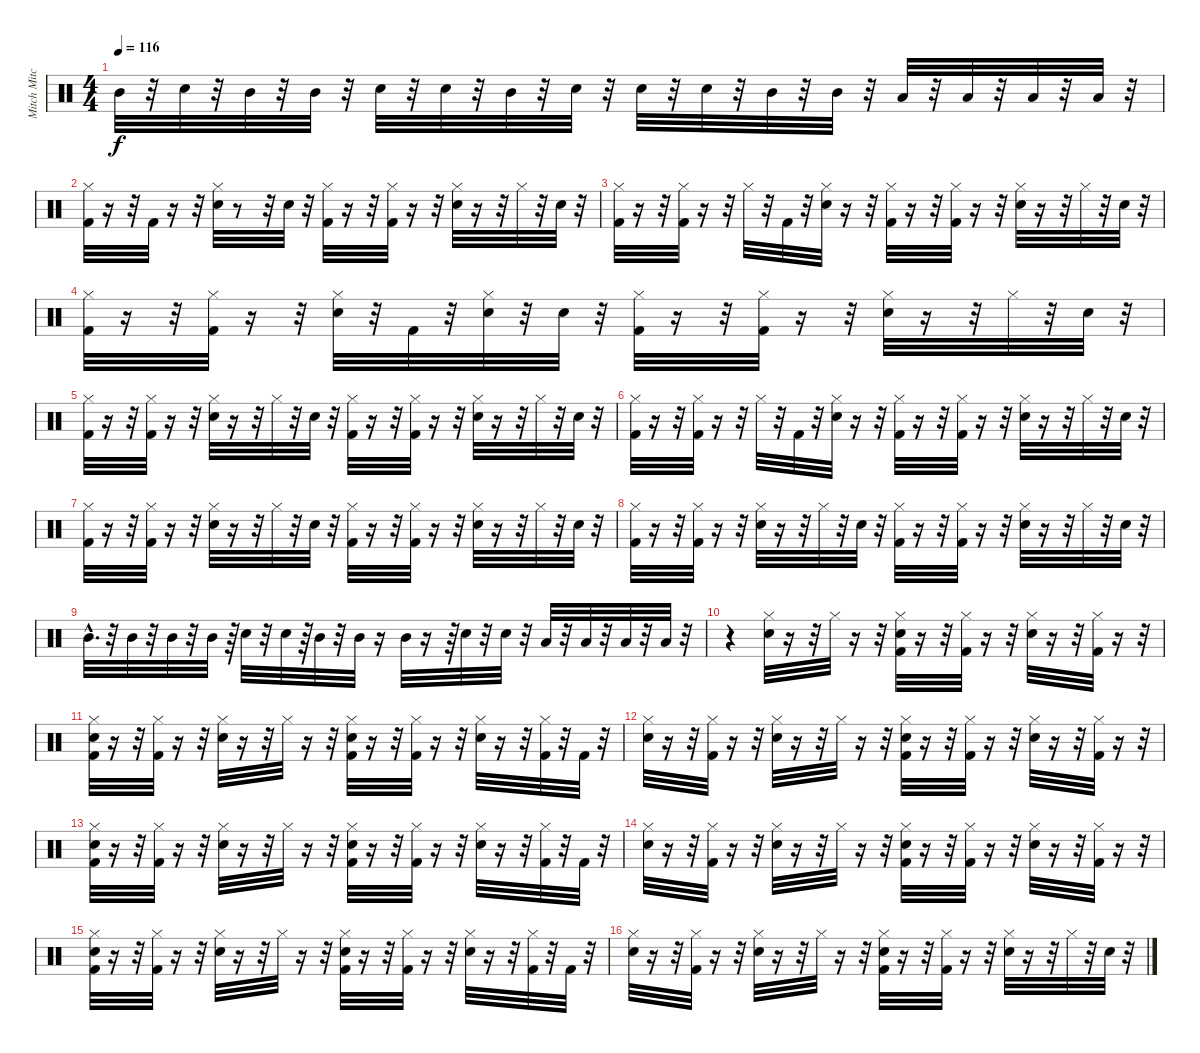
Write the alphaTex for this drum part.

\track ("Mitch Mitchell" "Mitch Mitc") {instrument percussion}
\staff {score}
\articulation defaults
\ts (4 4)
\tempo 116
\clef neutral
\ks c "Mid Tom (hit)".32{dy f}
r.32 "Snare (hit) 2".32 r.32 "Mid Tom (hit)".32 r.32 "Mid Tom (hit)".32 r.32 "Snare (hit) 2".32 r.32 "Snare (hit) 2".32 r.32 "Mid Tom (hit)".32 r.32 "Snare (hit) 2".32 r.32 "Snare (hit) 2".32 r.32 "Snare (hit) 2".32 r.32 "Mid Tom (hit)".32 r.32 "Mid Tom (hit)".32 r.32 "Low Floor Tom (hit)".32 r.32 "Low Floor Tom (hit)".32 r.32 "Low Floor Tom (hit)".32 r.32 "Low Floor Tom (hit)".32 r.32 |
("Hi-Hat (closed)" "Kick (hit) 2").32 r.16 r.32 "Kick (hit) 2".32 r.16 r.32 ("Hi-Hat (closed)" "Snare (hit) 2").32 r.8 r.32 "Snare (hit) 2".32 r.32 ("Kick (hit) 2" "Hi-Hat (closed)").32 r.16 r.32 ("Hi-Hat (closed)" "Kick (hit) 2").32 r.16 r.32 ("Snare (hit) 2" "Hi-Hat (closed)").32 r.16 r.32 "Hi-Hat (closed)".32 r.32 "Snare (hit) 2".32 r.32 |
("Kick (hit) 2" "Hi-Hat (closed)").32 r.16 r.32 ("Kick (hit) 2" "Hi-Hat (closed)").32 r.16 r.32 "Hi-Hat (closed)".32 r.32 "Kick (hit) 2".32 r.32 ("Snare (hit) 2" "Hi-Hat (closed)").32 r.16 r.32 ("Kick (hit) 2" "Hi-Hat (closed)").32 r.16 r.32 ("Kick (hit) 2" "Hi-Hat (closed)").32 r.16 r.32 ("Snare (hit) 2" "Hi-Hat (closed)").32 r.16 r.32 "Hi-Hat (closed)".32 r.32 "Snare (hit) 2".32 r.32 |
("Kick (hit) 2" "Hi-Hat (closed)").32 r.16 r.32 ("Kick (hit) 2" "Hi-Hat (closed)").32 r.16 r.32 ("Snare (hit) 2" "Hi-Hat (closed)").32 r.32 "Kick (hit) 2".32 r.32 ("Hi-Hat (closed)" "Snare (hit) 2").32 r.32 "Snare (hit) 2".32 r.32 ("Kick (hit) 2" "Hi-Hat (closed)").32 r.16 r.32 ("Kick (hit) 2" "Hi-Hat (closed)").32 r.16 r.32 ("Snare (hit) 2" "Hi-Hat (closed)").32 r.16 r.32 "Hi-Hat (closed)".32 r.32 "Snare (hit) 2".32 r.32 |
("Kick (hit) 2" "Hi-Hat (closed)").32 r.16 r.32 ("Kick (hit) 2" "Hi-Hat (closed)").32 r.16 r.32 ("Snare (hit) 2" "Hi-Hat (closed)").32 r.16 r.32 "Hi-Hat (closed)".32 r.32 "Snare (hit) 2".32 r.32 ("Kick (hit) 2" "Hi-Hat (closed)").32 r.16 r.32 ("Kick (hit) 2" "Hi-Hat (closed)").32 r.16 r.32 ("Snare (hit) 2" "Hi-Hat (closed)").32 r.16 r.32 "Hi-Hat (closed)".32 r.32 "Snare (hit) 2".32 r.32 |
("Kick (hit) 2" "Hi-Hat (closed)").32 r.16 r.32 ("Kick (hit) 2" "Hi-Hat (closed)").32 r.16 r.32 "Hi-Hat (closed)".32 r.32 "Kick (hit) 2".32 r.32 ("Snare (hit) 2" "Hi-Hat (closed)").32 r.16 r.32 ("Kick (hit) 2" "Hi-Hat (closed)").32 r.16 r.32 ("Kick (hit) 2" "Hi-Hat (closed)").32 r.16 r.32 ("Snare (hit) 2" "Hi-Hat (closed)").32 r.16 r.32 "Hi-Hat (closed)".32 r.32 "Snare (hit) 2".32 r.32 |
("Kick (hit) 2" "Hi-Hat (closed)").32 r.16 r.32 ("Kick (hit) 2" "Hi-Hat (closed)").32 r.16 r.32 ("Snare (hit) 2" "Hi-Hat (closed)").32 r.16 r.32 "Hi-Hat (closed)".32 r.32 "Snare (hit) 2".32 r.32 ("Kick (hit) 2" "Hi-Hat (closed)").32 r.16 r.32 ("Kick (hit) 2" "Hi-Hat (closed)").32 r.16 r.32 ("Snare (hit) 2" "Hi-Hat (closed)").32 r.16 r.32 "Hi-Hat (closed)".32 r.32 "Snare (hit) 2".32 r.32 |
("Hi-Hat (closed)" "Kick (hit) 2").32 r.16 r.32 ("Kick (hit) 2" "Hi-Hat (closed)").32 r.16 r.32 ("Snare (hit) 2" "Hi-Hat (closed)").32 r.16 r.32 "Hi-Hat (closed)".32 r.32 "Snare (hit) 2".32 r.32 ("Hi-Hat (closed)" "Kick (hit) 2").32 r.16 r.32 ("Hi-Hat (closed)" "Kick (hit) 2").32 r.16 r.32 ("Hi-Hat (closed)" "Snare (hit) 2").32 r.16 r.32 "Hi-Hat (closed)".32 r.32 "Snare (hit) 2".32 r.32 |
"Mid Tom (hit)"{hac}.32{d} r.32 "Mid Tom (hit)".32 r.32 "Mid Tom (hit)".32 r.32 "Mid Tom (hit)".32 r.64 "Snare (hit) 2".32 r.32 "Snare (hit) 2".32 r.64 "Mid Tom (hit)".32 r.32 "Mid Tom (hit)".32 r.16 "Mid Tom (hit)".32 r.16 r.64 "Snare (hit) 2".32 r.32 "Snare (hit) 2".32 r.32 "Low Floor Tom (hit)".32 r.32 "Low Floor Tom (hit)".32 r.32 "Low Floor Tom (hit)".32 r.32 "Low Floor Tom (hit)".32 r.32 |
r.4 ("Hi-Hat (closed)" "Snare (hit) 2").32 r.16 r.32 "Hi-Hat (closed)".32 r.16 r.32 ("Kick (hit) 2" "Snare (hit) 2" "Hi-Hat (closed)").32 r.16 r.32 ("Kick (hit) 2" "Hi-Hat (closed)").32 r.16 r.32 ("Snare (hit) 2" "Hi-Hat (closed)").32 r.16 r.32 ("Kick (hit) 2" "Hi-Hat (closed)").32 r.16 r.32 |
("Snare (hit) 2" "Kick (hit) 2" "Hi-Hat (closed)").32 r.16 r.32 ("Kick (hit) 2" "Hi-Hat (closed)").32 r.16 r.32 ("Snare (hit) 2" "Hi-Hat (closed)").32 r.16 r.32 "Hi-Hat (closed)".32 r.16 r.32 ("Kick (hit) 2" "Snare (hit) 2" "Hi-Hat (closed)").32 r.16 r.32 ("Kick (hit) 2" "Hi-Hat (closed)").32 r.16 r.32 ("Snare (hit) 2" "Hi-Hat (closed)").32 r.16 r.32 ("Kick (hit) 2" "Hi-Hat (closed)").32 r.32 "Kick (hit) 2".32 r.32 |
("Snare (hit) 2" "Hi-Hat (closed)").32 r.16 r.32 ("Hi-Hat (closed)" "Kick (hit) 2").32 r.16 r.32 ("Snare (hit) 2" "Hi-Hat (closed)").32 r.16 r.32 "Hi-Hat (closed)".32 r.16 r.32 ("Kick (hit) 2" "Snare (hit) 2" "Hi-Hat (closed)").32 r.16 r.32 ("Kick (hit) 2" "Hi-Hat (closed)").32 r.16 r.32 ("Snare (hit) 2" "Hi-Hat (closed)").32 r.16 r.32 ("Kick (hit) 2" "Hi-Hat (closed)").32 r.16 r.32 |
("Kick (hit) 2" "Snare (hit) 2" "Hi-Hat (closed)").32 r.16 r.32 ("Kick (hit) 2" "Hi-Hat (closed)").32 r.16 r.32 ("Snare (hit) 2" "Hi-Hat (closed)").32 r.16 r.32 "Hi-Hat (closed)".32 r.16 r.32 ("Kick (hit) 2" "Snare (hit) 2" "Hi-Hat (closed)").32 r.16 r.32 ("Kick (hit) 2" "Hi-Hat (closed)").32 r.16 r.32 ("Snare (hit) 2" "Hi-Hat (closed)").32 r.16 r.32 ("Kick (hit) 2" "Hi-Hat (closed)").32 r.32 "Kick (hit) 2".32 r.32 |
("Snare (hit) 2" "Hi-Hat (closed)").32 r.16 r.32 ("Hi-Hat (closed)" "Kick (hit) 2").32 r.16 r.32 ("Snare (hit) 2" "Hi-Hat (closed)").32 r.16 r.32 "Hi-Hat (closed)".32 r.16 r.32 ("Kick (hit) 2" "Snare (hit) 2" "Hi-Hat (closed)").32 r.16 r.32 ("Kick (hit) 2" "Hi-Hat (closed)").32 r.16 r.32 ("Snare (hit) 2" "Hi-Hat (closed)").32 r.16 r.32 ("Kick (hit) 2" "Hi-Hat (closed)").32 r.16 r.32 |
("Kick (hit) 2" "Snare (hit) 2" "Hi-Hat (closed)").32 r.16 r.32 ("Kick (hit) 2" "Hi-Hat (closed)").32 r.16 r.32 ("Snare (hit) 2" "Hi-Hat (closed)").32 r.16 r.32 "Hi-Hat (closed)".32 r.16 r.32 ("Kick (hit) 2" "Snare (hit) 2" "Hi-Hat (closed)").32 r.16 r.32 ("Kick (hit) 2" "Hi-Hat (closed)").32 r.16 r.32 ("Snare (hit) 2" "Hi-Hat (closed)").32 r.16 r.32 ("Kick (hit) 2" "Hi-Hat (closed)").32 r.32 "Kick (hit) 2".32 r.32 |
("Snare (hit) 2" "Hi-Hat (closed)").32 r.16 r.32 ("Kick (hit) 2" "Hi-Hat (closed)").32 r.16 r.32 ("Snare (hit) 2" "Hi-Hat (closed)").32 r.16 r.32 "Hi-Hat (closed)".32 r.16 r.32 ("Kick (hit) 2" "Snare (hit) 2" "Hi-Hat (closed)").32 r.16 r.32 ("Kick (hit) 2" "Hi-Hat (closed)").32 r.16 r.32 ("Snare (hit) 2" "Hi-Hat (closed)").32 r.16 r.32 "Hi-Hat (closed)".32 r.32 "Snare (hit) 2".32 r.32
